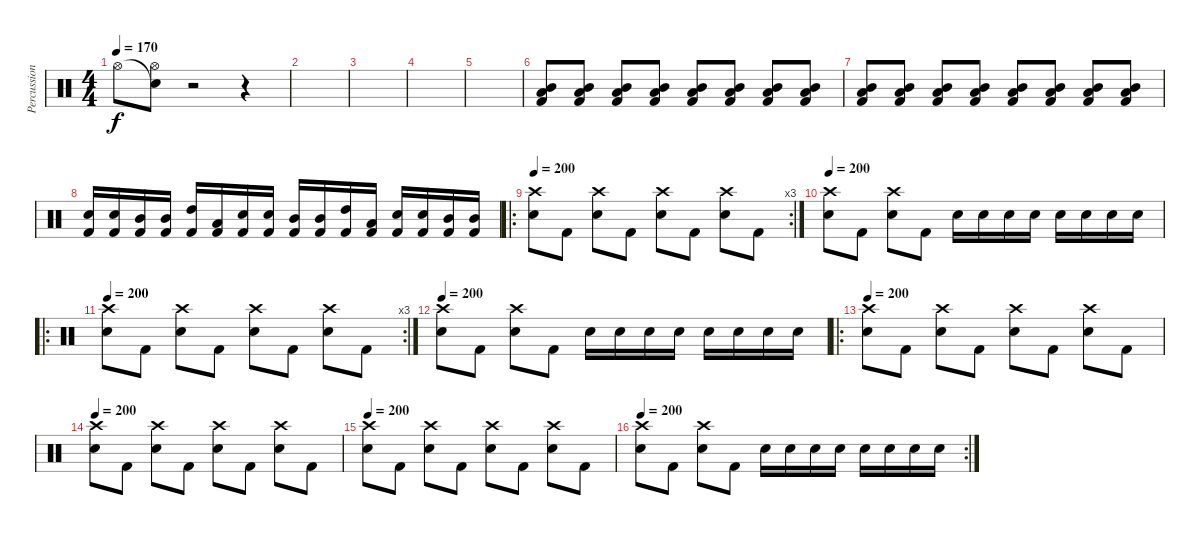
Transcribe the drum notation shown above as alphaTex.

\track ("Percussion" "Percussion") {instrument percussion}
\staff {score}
\articulation defaults
\ts (4 4)
\tempo 170
\clef neutral
\ks c "Hi-Hat (open)".8{dy f}
("Snare (hit)"{t} "Hi-Hat (open)").8 r.2 r.4 |
|
|
|
|
("Mid Tom (hit)" "Low Floor Tom (hit)" "Kick (hit) 2").8 ("Mid Tom (hit)" "Low Floor Tom (hit)" "Kick (hit) 2").8 ("Mid Tom (hit)" "Low Floor Tom (hit)" "Kick (hit) 2").8 ("Mid Tom (hit)" "Low Floor Tom (hit)" "Kick (hit) 2").8 ("Mid Tom (hit)" "Low Floor Tom (hit)" "Kick (hit) 2").8 ("Mid Tom (hit)" "Low Floor Tom (hit)" "Kick (hit) 2").8 ("Mid Tom (hit)" "Low Floor Tom (hit)" "Kick (hit) 2").8 ("Mid Tom (hit)" "Low Floor Tom (hit)" "Kick (hit) 2").8 |
("Mid Tom (hit)" "Low Floor Tom (hit)" "Kick (hit) 2").8 ("Mid Tom (hit)" "Low Floor Tom (hit)" "Kick (hit) 2").8 ("Mid Tom (hit)" "Low Floor Tom (hit)" "Kick (hit) 2").8 ("Mid Tom (hit)" "Low Floor Tom (hit)" "Kick (hit) 2").8 ("Mid Tom (hit)" "Low Floor Tom (hit)" "Kick (hit) 2").8 ("Mid Tom (hit)" "Low Floor Tom (hit)" "Kick (hit) 2").8 ("Mid Tom (hit)" "Low Floor Tom (hit)" "Kick (hit) 2").8 ("Mid Tom (hit)" "Low Floor Tom (hit)" "Kick (hit) 2").8 |
("Electric Snare (hit)" "Kick (hit) 2").16 ("Electric Snare (hit)" "Kick (hit) 2").16 ("Mid Tom (hit)" "Kick (hit) 2").16 ("Mid Tom (hit)" "Kick (hit) 2").16 ("High Tom (hit)" "Kick (hit) 2").16 ("Low Floor Tom (hit)" "Kick (hit) 2").16 ("Electric Snare (hit)" "Kick (hit) 2").16 ("Electric Snare (hit)" "Kick (hit) 2").16 ("Mid Tom (hit)" "Kick (hit) 2").16 ("Mid Tom (hit)" "Kick (hit) 2").16 ("High Tom (hit)" "Kick (hit) 2").16 ("Low Floor Tom (hit)" "Kick (hit) 2").16 ("Electric Snare (hit)" "Kick (hit) 2").16 ("Electric Snare (hit)" "Kick (hit) 2").16 ("Mid Tom (hit)" "Kick (hit) 2").16 ("Mid Tom (hit)" "Kick (hit) 2").16 |
\ro
\rc 3
\tempo 200
("Crash high (hit)" "Electric Snare (hit)").8 "Kick (hit) 2".8 ("Crash high (hit)" "Electric Snare (hit)").8 "Kick (hit) 2".8 ("Crash high (hit)" "Electric Snare (hit)").8 "Kick (hit) 2".8 ("Crash high (hit)" "Electric Snare (hit)").8 "Kick (hit) 2".8 |
\tempo 200
("Crash high (hit)" "Electric Snare (hit)").8 "Kick (hit) 2".8 ("Crash high (hit)" "Electric Snare (hit)").8 "Kick (hit) 2".8 "Electric Snare (hit)".16 "Electric Snare (hit)".16 "Electric Snare (hit)".16 "Electric Snare (hit)".16 "Electric Snare (hit)".16 "Electric Snare (hit)".16 "Electric Snare (hit)".16 "Electric Snare (hit)".16 |
\ro
\rc 3
\tempo 200
("Crash high (hit)" "Electric Snare (hit)").8 "Kick (hit) 2".8 ("Crash high (hit)" "Electric Snare (hit)").8 "Kick (hit) 2".8 ("Crash high (hit)" "Electric Snare (hit)").8 "Kick (hit) 2".8 ("Crash high (hit)" "Electric Snare (hit)").8 "Kick (hit) 2".8 |
\tempo 200
("Crash high (hit)" "Electric Snare (hit)").8 "Kick (hit) 2".8 ("Crash high (hit)" "Electric Snare (hit)").8 "Kick (hit) 2".8 "Electric Snare (hit)".16 "Electric Snare (hit)".16 "Electric Snare (hit)".16 "Electric Snare (hit)".16 "Electric Snare (hit)".16 "Electric Snare (hit)".16 "Electric Snare (hit)".16 "Electric Snare (hit)".16 |
\ro
\tempo 200
("Crash high (hit)" "Electric Snare (hit)").8 "Kick (hit) 2".8 ("Crash high (hit)" "Electric Snare (hit)").8 "Kick (hit) 2".8 ("Crash high (hit)" "Electric Snare (hit)").8 "Kick (hit) 2".8 ("Crash high (hit)" "Electric Snare (hit)").8 "Kick (hit) 2".8 |
\tempo 200
("Crash high (hit)" "Electric Snare (hit)").8 "Kick (hit) 2".8 ("Crash high (hit)" "Electric Snare (hit)").8 "Kick (hit) 2".8 ("Crash high (hit)" "Electric Snare (hit)").8 "Kick (hit) 2".8 ("Crash high (hit)" "Electric Snare (hit)").8 "Kick (hit) 2".8 |
\tempo 200
("Crash high (hit)" "Electric Snare (hit)").8 "Kick (hit) 2".8 ("Crash high (hit)" "Electric Snare (hit)").8 "Kick (hit) 2".8 ("Crash high (hit)" "Electric Snare (hit)").8 "Kick (hit) 2".8 ("Crash high (hit)" "Electric Snare (hit)").8 "Kick (hit) 2".8 |
\rc 2
\tempo 200
("Crash high (hit)" "Electric Snare (hit)").8 "Kick (hit) 2".8 ("Crash high (hit)" "Electric Snare (hit)").8 "Kick (hit) 2".8 "Electric Snare (hit)".16 "Electric Snare (hit)".16 "Electric Snare (hit)".16 "Electric Snare (hit)".16 "Electric Snare (hit)".16 "Electric Snare (hit)".16 "Electric Snare (hit)".16 "Electric Snare (hit)".16
